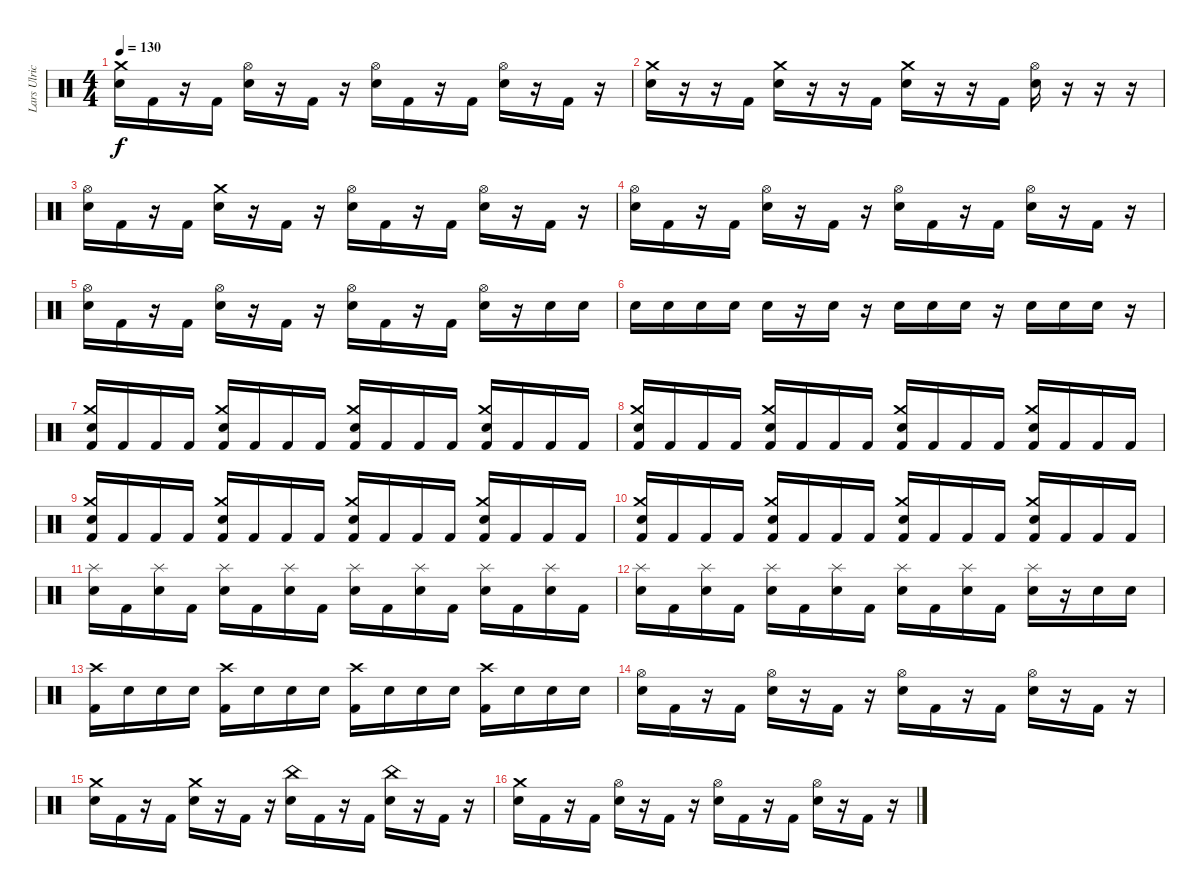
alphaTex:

\track ("Lars Ulrich" "Lars Ulric") {instrument percussion}
\staff {score}
\articulation defaults
\ts (4 4)
\tempo 130
\clef neutral
\ks c
("Electric Snare (hit)" "Crash medium (hit)").16{dy f} "Kick (hit) 2".16 r.16 "Kick (hit) 2".16 ("Electric Snare (hit)" "Hi-Hat (open)").16 r.16 "Kick (hit) 2".16 r.16 ("Electric Snare (hit)" "Hi-Hat (open)").16 "Kick (hit) 2".16 r.16 "Kick (hit) 2".16 ("Electric Snare (hit)" "Hi-Hat (open)").16 r.16 "Kick (hit) 2".16 r.16 |
("Electric Snare (hit)" "Crash medium (hit)").16 r.16 r.16 "Kick (hit) 2".16 ("Electric Snare (hit)" "Crash medium (hit)").16 r.16 r.16 "Kick (hit) 2".16 ("Electric Snare (hit)" "Crash medium (hit)").16 r.16 r.16 "Kick (hit) 2".16 ("Electric Snare (hit)" "Hi-Hat (open)").16 r.16 r.16 r.16 |
("Electric Snare (hit)" "Hi-Hat (open)").16 "Kick (hit) 2".16 r.16 "Kick (hit) 2".16 ("Electric Snare (hit)" "Crash medium (hit)").16 r.16 "Kick (hit) 2".16 r.16 ("Electric Snare (hit)" "Hi-Hat (open)").16 "Kick (hit) 2".16 r.16 "Kick (hit) 2".16 ("Electric Snare (hit)" "Hi-Hat (open)").16 r.16 "Kick (hit) 2".16 r.16 |
("Electric Snare (hit)" "Hi-Hat (open)").16 "Kick (hit) 2".16 r.16 "Kick (hit) 2".16 ("Electric Snare (hit)" "Hi-Hat (open)").16 r.16 "Kick (hit) 2".16 r.16 ("Electric Snare (hit)" "Hi-Hat (open)").16 "Kick (hit) 2".16 r.16 "Kick (hit) 2".16 ("Electric Snare (hit)" "Hi-Hat (open)").16 r.16 "Kick (hit) 2".16 r.16 |
("Electric Snare (hit)" "Hi-Hat (open)").16 "Kick (hit) 2".16 r.16 "Kick (hit) 2".16 ("Electric Snare (hit)" "Hi-Hat (open)").16 r.16 "Kick (hit) 2".16 r.16 ("Electric Snare (hit)" "Hi-Hat (open)").16 "Kick (hit) 2".16 r.16 "Kick (hit) 2".16 ("Electric Snare (hit)" "Hi-Hat (open)").16 r.16 "Electric Snare (hit)".16 "Electric Snare (hit)".16 |
"Electric Snare (hit)".16 "Electric Snare (hit)".16 "Electric Snare (hit)".16 "Electric Snare (hit)".16 "Electric Snare (hit)".16 r.16 "Electric Snare (hit)".16 r.16 "Electric Snare (hit)".16 "Electric Snare (hit)".16 "Electric Snare (hit)".16 r.16 "Electric Snare (hit)".16 "Electric Snare (hit)".16 "Electric Snare (hit)".16 r.16 |
("Electric Snare (hit)" "Crash medium (hit)" "Kick (hit) 2").16 "Kick (hit) 2".16 "Kick (hit) 2".16 "Kick (hit) 2".16 ("Electric Snare (hit)" "Crash medium (hit)" "Kick (hit) 2").16 "Kick (hit) 2".16 "Kick (hit) 2".16 "Kick (hit) 2".16 ("Electric Snare (hit)" "Crash medium (hit)" "Kick (hit) 2").16 "Kick (hit) 2".16 "Kick (hit) 2".16 "Kick (hit) 2".16 ("Electric Snare (hit)" "Crash medium (hit)" "Kick (hit) 2").16 "Kick (hit) 2".16 "Kick (hit) 2".16 "Kick (hit) 2".16 |
("Electric Snare (hit)" "Crash medium (hit)" "Kick (hit) 2").16 "Kick (hit) 2".16 "Kick (hit) 2".16 "Kick (hit) 2".16 ("Electric Snare (hit)" "Crash medium (hit)" "Kick (hit) 2").16 "Kick (hit) 2".16 "Kick (hit) 2".16 "Kick (hit) 2".16 ("Electric Snare (hit)" "Crash medium (hit)" "Kick (hit) 2").16 "Kick (hit) 2".16 "Kick (hit) 2".16 "Kick (hit) 2".16 ("Electric Snare (hit)" "Crash medium (hit)" "Kick (hit) 2").16 "Kick (hit) 2".16 "Kick (hit) 2".16 "Kick (hit) 2".16 |
("Electric Snare (hit)" "Crash medium (hit)" "Kick (hit) 2").16 "Kick (hit) 2".16 "Kick (hit) 2".16 "Kick (hit) 2".16 ("Electric Snare (hit)" "Crash medium (hit)" "Kick (hit) 2").16 "Kick (hit) 2".16 "Kick (hit) 2".16 "Kick (hit) 2".16 ("Electric Snare (hit)" "Crash medium (hit)" "Kick (hit) 2").16 "Kick (hit) 2".16 "Kick (hit) 2".16 "Kick (hit) 2".16 ("Electric Snare (hit)" "Crash medium (hit)" "Kick (hit) 2").16 "Kick (hit) 2".16 "Kick (hit) 2".16 "Kick (hit) 2".16 |
("Electric Snare (hit)" "Crash medium (hit)" "Kick (hit) 2").16 "Kick (hit) 2".16 "Kick (hit) 2".16 "Kick (hit) 2".16 ("Electric Snare (hit)" "Crash medium (hit)" "Kick (hit) 2").16 "Kick (hit) 2".16 "Kick (hit) 2".16 "Kick (hit) 2".16 ("Electric Snare (hit)" "Crash medium (hit)" "Kick (hit) 2").16 "Kick (hit) 2".16 "Kick (hit) 2".16 "Kick (hit) 2".16 ("Electric Snare (hit)" "Crash medium (hit)" "Kick (hit) 2").16 "Kick (hit) 2".16 "Kick (hit) 2".16 "Kick (hit) 2".16 |
("Electric Snare (hit)" "Splash (hit)").16 "Kick (hit) 2".16 ("Electric Snare (hit)" "Splash (hit)").16 "Kick (hit) 2".16 ("Electric Snare (hit)" "Splash (hit)").16 "Kick (hit) 2".16 ("Electric Snare (hit)" "Splash (hit)").16 "Kick (hit) 2".16 ("Electric Snare (hit)" "Splash (hit)").16 "Kick (hit) 2".16 ("Electric Snare (hit)" "Splash (hit)").16 "Kick (hit) 2".16 ("Electric Snare (hit)" "Splash (hit)").16 "Kick (hit) 2".16 ("Electric Snare (hit)" "Splash (hit)").16 "Kick (hit) 2".16 |
("Electric Snare (hit)" "Splash (hit)").16 "Kick (hit) 2".16 ("Electric Snare (hit)" "Splash (hit)").16 "Kick (hit) 2".16 ("Electric Snare (hit)" "Splash (hit)").16 "Kick (hit) 2".16 ("Electric Snare (hit)" "Splash (hit)").16 "Kick (hit) 2".16 ("Electric Snare (hit)" "Splash (hit)").16 "Kick (hit) 2".16 ("Electric Snare (hit)" "Splash (hit)").16 "Kick (hit) 2".16 ("Electric Snare (hit)" "Splash (hit)").16 r.16 "Electric Snare (hit)".16 "Electric Snare (hit)".16 |
("Crash high (hit)" "Kick (hit) 2").16 "Electric Snare (hit)".16 "Electric Snare (hit)".16 "Electric Snare (hit)".16 ("Crash high (hit)" "Kick (hit) 2").16 "Electric Snare (hit)".16 "Electric Snare (hit)".16 "Electric Snare (hit)".16 ("Crash high (hit)" "Kick (hit) 2").16 "Electric Snare (hit)".16 "Electric Snare (hit)".16 "Electric Snare (hit)".16 ("Crash high (hit)" "Kick (hit) 2").16 "Electric Snare (hit)".16 "Electric Snare (hit)".16 "Electric Snare (hit)".16 |
("Electric Snare (hit)" "Hi-Hat (open)").16 "Kick (hit) 2".16 r.16 "Kick (hit) 2".16 ("Electric Snare (hit)" "Hi-Hat (open)").16 r.16 "Kick (hit) 2".16 r.16 ("Electric Snare (hit)" "Hi-Hat (open)").16 "Kick (hit) 2".16 r.16 "Kick (hit) 2".16 ("Electric Snare (hit)" "Hi-Hat (open)").16 r.16 "Kick (hit) 2".16 r.16 |
("Electric Snare (hit)" "Crash medium (hit)").16 "Kick (hit) 2".16 r.16 "Kick (hit) 2".16 ("Electric Snare (hit)" "Crash medium (hit)").16 r.16 "Kick (hit) 2".16 r.16 ("Electric Snare (hit)" "China (hit)").16 "Kick (hit) 2".16 r.16 "Kick (hit) 2".16 ("Electric Snare (hit)" "China (hit)").16 r.16 "Kick (hit) 2".16 r.16 |
("Electric Snare (hit)" "Crash medium (hit)").16 "Kick (hit) 2".16 r.16 "Kick (hit) 2".16 ("Electric Snare (hit)" "Hi-Hat (open)").16 r.16 "Kick (hit) 2".16 r.16 ("Electric Snare (hit)" "Hi-Hat (open)").16 "Kick (hit) 2".16 r.16 "Kick (hit) 2".16 ("Electric Snare (hit)" "Hi-Hat (open)").16 r.16 "Kick (hit) 2".16 r.16
